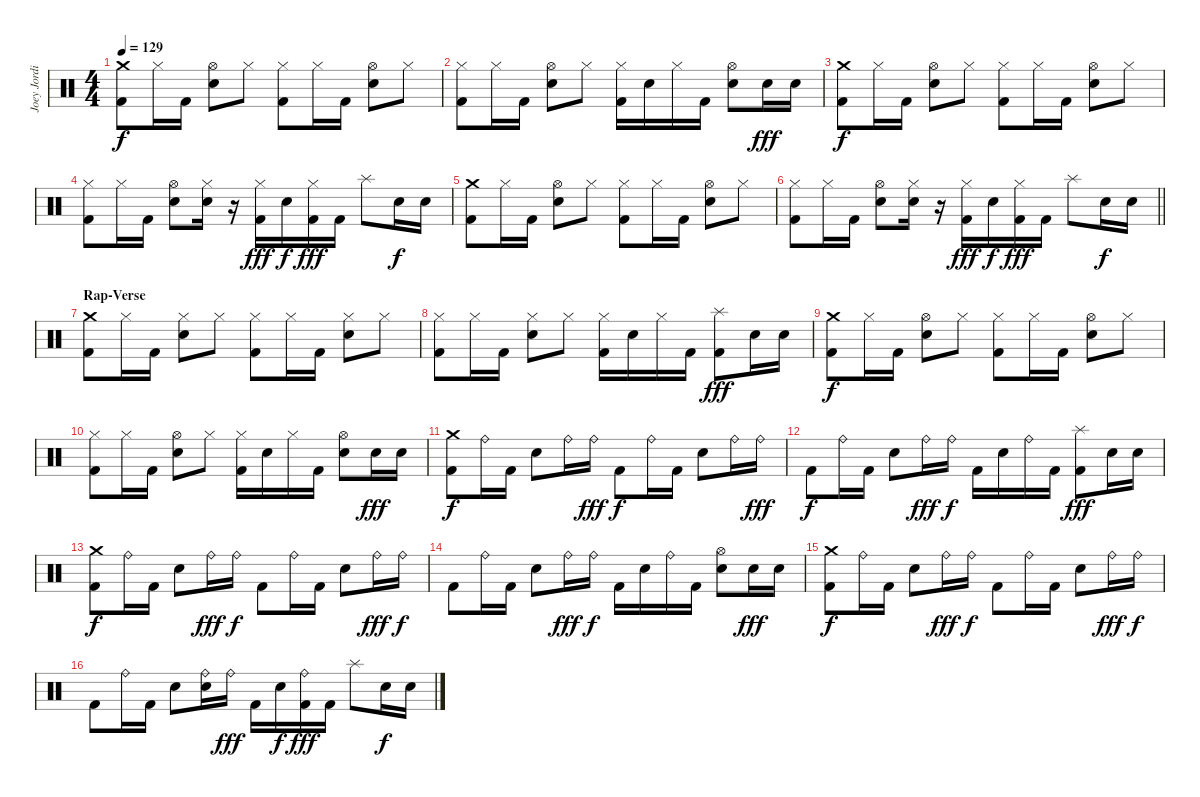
\track ("Joey Jordison" "Joey Jordi") {instrument percussion}
\staff {score}
\articulation defaults
\ts (4 4)
\tempo 129
\clef neutral
\ks c
("Crash medium (hit)" "Kick (hit) 2").8{dy f} "Hi-Hat (closed)".16 "Kick (hit) 2".16 ("Hi-Hat (open)" "Electric Snare (hit)").8 "Hi-Hat (closed)".8 ("Hi-Hat (closed)" "Kick (hit) 2").8 "Hi-Hat (closed)".16 "Kick (hit) 2".16 ("Hi-Hat (open)" "Electric Snare (hit)").8 "Hi-Hat (closed)".8 |
("Hi-Hat (closed)" "Kick (hit) 2").8 "Hi-Hat (closed)".16 "Kick (hit) 2".16 ("Hi-Hat (open)" "Electric Snare (hit)").8 "Hi-Hat (closed)".8 ("Hi-Hat (closed)" "Kick (hit) 2").16 "Electric Snare (hit)".16 "Hi-Hat (closed)".16 "Kick (hit) 2".16 ("Hi-Hat (open)" "Electric Snare (hit)").8 "Electric Snare (hit)".16{dy fff} "Electric Snare (hit)".16 |
("Crash medium (hit)" "Kick (hit) 2").8{dy f} "Hi-Hat (closed)".16 "Kick (hit) 2".16 ("Hi-Hat (open)" "Electric Snare (hit)").8 "Hi-Hat (closed)".8 ("Hi-Hat (closed)" "Kick (hit) 2").8 "Hi-Hat (closed)".16 "Kick (hit) 2".16 ("Hi-Hat (open)" "Electric Snare (hit)").8 "Hi-Hat (closed)".8 |
("Hi-Hat (closed)" "Kick (hit) 2").8 "Hi-Hat (closed)".16 "Kick (hit) 2".16 ("Hi-Hat (open)" "Electric Snare (hit)").8 ("Hi-Hat (closed)" "Electric Snare (hit)").16 r.16 ("Hi-Hat (closed)" "Kick (hit) 2").16{dy fff} "Electric Snare (hit)".16{dy f} ("Hi-Hat (closed)" "Kick (hit) 2").16{dy fff} "Kick (hit) 2".16 "Splash (hit)".8 "Electric Snare (hit)".16{dy f} "Electric Snare (hit)".16 |
("Crash medium (hit)" "Kick (hit) 2").8 "Hi-Hat (closed)".16 "Kick (hit) 2".16 ("Hi-Hat (open)" "Electric Snare (hit)").8 "Hi-Hat (closed)".8 ("Hi-Hat (closed)" "Kick (hit) 2").8 "Hi-Hat (closed)".16 "Kick (hit) 2".16 ("Hi-Hat (open)" "Electric Snare (hit)").8 "Hi-Hat (closed)".8 |
\barLineRight lightlight
("Hi-Hat (closed)" "Kick (hit) 2").8 "Hi-Hat (closed)".16 "Kick (hit) 2".16 ("Hi-Hat (open)" "Electric Snare (hit)").8 ("Hi-Hat (closed)" "Electric Snare (hit)").16 r.16 ("Hi-Hat (closed)" "Kick (hit) 2").16{dy fff} "Electric Snare (hit)".16{dy f} ("Hi-Hat (closed)" "Kick (hit) 2").16{dy fff} "Kick (hit) 2".16 "Splash (hit)".8 "Electric Snare (hit)".16{dy f} "Electric Snare (hit)".16 |
\section ("" "Rap-Verse")
("Crash medium (hit)" "Kick (hit) 2").8 "Hi-Hat (closed)".16 "Kick (hit) 2".16 ("Hi-Hat (closed)" "Electric Snare (hit)").8 "Hi-Hat (closed)".8 ("Hi-Hat (closed)" "Kick (hit) 2").8 "Hi-Hat (closed)".16 "Kick (hit) 2".16 ("Hi-Hat (closed)" "Electric Snare (hit)").8 "Hi-Hat (closed)".8 |
("Hi-Hat (closed)" "Kick (hit) 2").8 "Hi-Hat (closed)".16 "Kick (hit) 2".16 ("Hi-Hat (closed)" "Electric Snare (hit)").8 "Hi-Hat (closed)".8 ("Hi-Hat (closed)" "Kick (hit) 2").16 "Electric Snare (hit)".16 "Hi-Hat (closed)".16 "Kick (hit) 2".16 ("Splash (hit)" "Kick (hit) 2").8{dy fff} "Electric Snare (hit)".16 "Electric Snare (hit)".16 |
("Crash medium (hit)" "Kick (hit) 2").8{dy f} "Hi-Hat (closed)".16 "Kick (hit) 2".16 ("Hi-Hat (open)" "Electric Snare (hit)").8 "Hi-Hat (closed)".8 ("Hi-Hat (closed)" "Kick (hit) 2").8 "Hi-Hat (closed)".16 "Kick (hit) 2".16 ("Hi-Hat (open)" "Electric Snare (hit)").8 "Hi-Hat (closed)".8 |
("Hi-Hat (closed)" "Kick (hit) 2").8 "Hi-Hat (closed)".16 "Kick (hit) 2".16 ("Hi-Hat (open)" "Electric Snare (hit)").8 "Hi-Hat (closed)".8 ("Hi-Hat (closed)" "Kick (hit) 2").16 "Electric Snare (hit)".16 "Hi-Hat (closed)".16 "Kick (hit) 2".16 ("Hi-Hat (open)" "Electric Snare (hit)").8 "Electric Snare (hit)".16{dy fff} "Electric Snare (hit)".16 |
("Crash medium (hit)" "Kick (hit) 2").8{dy f} "Ride (bell)".16 "Kick (hit) 2".16 "Electric Snare (hit)".8 "Ride (bell)".16 "Ride (bell)".16{dy fff} "Kick (hit) 2".8{dy f} "Ride (bell)".16 "Kick (hit) 2".16 "Electric Snare (hit)".8 "Ride (bell)".16 "Ride (bell)".16{dy fff} |
"Kick (hit) 2".8{dy f} "Ride (bell)".16 "Kick (hit) 2".16 "Electric Snare (hit)".8 "Ride (bell)".16{dy fff} "Ride (bell)".16{dy f} "Kick (hit) 2".16 "Electric Snare (hit)".16 "Ride (bell)".16 "Kick (hit) 2".16 ("Splash (hit)" "Kick (hit) 2").8{dy fff} "Electric Snare (hit)".16 "Electric Snare (hit)".16 |
("Crash medium (hit)" "Kick (hit) 2").8{dy f} "Ride (bell)".16 "Kick (hit) 2".16 "Electric Snare (hit)".8 "Ride (bell)".16{dy fff} "Ride (bell)".16{dy f} "Kick (hit) 2".8 "Ride (bell)".16 "Kick (hit) 2".16 "Electric Snare (hit)".8 "Ride (bell)".16{dy fff} "Ride (bell)".16{dy f} |
"Kick (hit) 2".8 "Ride (bell)".16 "Kick (hit) 2".16 "Electric Snare (hit)".8 "Ride (bell)".16{dy fff} "Ride (bell)".16{dy f} "Kick (hit) 2".16 "Electric Snare (hit)".16 "Ride (bell)".16 "Kick (hit) 2".16 ("Hi-Hat (open)" "Electric Snare (hit)").8 "Electric Snare (hit)".16{dy fff} "Electric Snare (hit)".16 |
("Crash medium (hit)" "Kick (hit) 2").8{dy f} "Ride (bell)".16 "Kick (hit) 2".16 "Electric Snare (hit)".8 "Ride (bell)".16{dy fff} "Ride (bell)".16{dy f} "Kick (hit) 2".8 "Ride (bell)".16 "Kick (hit) 2".16 "Electric Snare (hit)".8 "Ride (bell)".16{dy fff} "Ride (bell)".16{dy f} |
"Kick (hit) 2".8 "Ride (bell)".16 "Kick (hit) 2".16 "Electric Snare (hit)".8 ("Ride (bell)" "Electric Snare (hit)").16 "Ride (bell)".16{dy fff} "Kick (hit) 2".16 "Electric Snare (hit)".16{dy f} ("Ride (bell)" "Kick (hit) 2").16{dy fff} "Kick (hit) 2".16 "Splash (hit)".8 "Electric Snare (hit)".16{dy f} "Electric Snare (hit)".16
